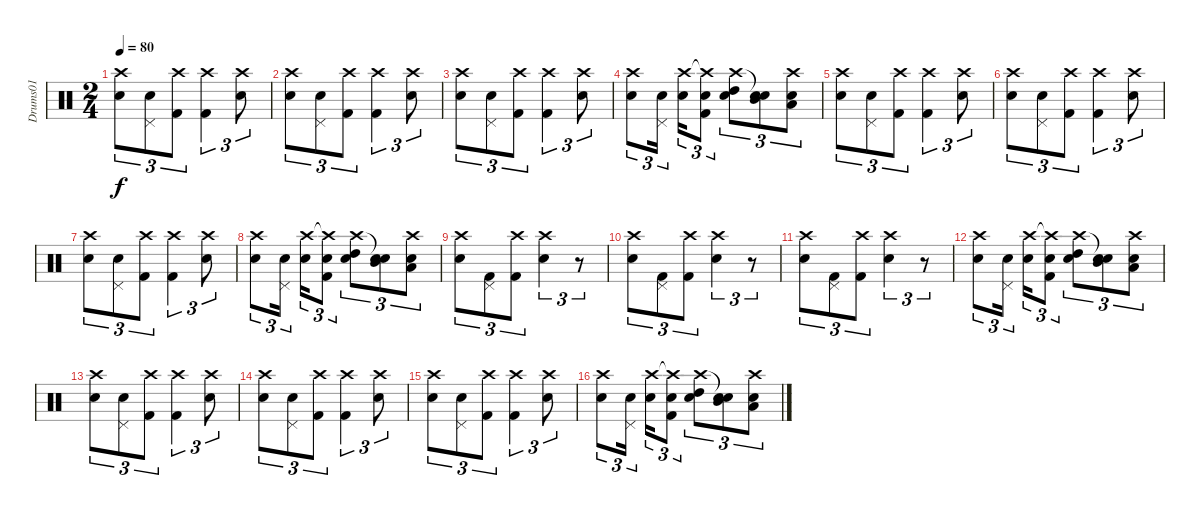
\track ("Drums01" "Drums01") {instrument percussion}
\staff {score}
\articulation defaults
\ts (2 4)
\tempo 80
\clef neutral
\ks c
("Crash high (hit)" "Snare (hit) 2").8{tu (3 2) dy f} ("Pedal Hi-Hat (hit)" "Snare (hit) 2").8{tu (3 2)} ("Crash high (hit)" "Kick (hit) 2").8{tu (3 2)} ("Crash high (hit)" "Kick (hit) 2").4{tu (3 2)} ("Crash high (hit)" "Snare (hit) 2").8{tu (3 2)} |
("Crash high (hit)" "Snare (hit) 2").8{tu (3 2)} ("Pedal Hi-Hat (hit)" "Snare (hit) 2").8{tu (3 2)} ("Crash high (hit)" "Kick (hit) 2").8{tu (3 2)} ("Crash high (hit)" "Kick (hit) 2").4{tu (3 2)} ("Crash high (hit)" "Snare (hit) 2").8{tu (3 2)} |
("Crash high (hit)" "Snare (hit) 2").8{tu (3 2)} ("Pedal Hi-Hat (hit)" "Snare (hit) 2").8{tu (3 2)} ("Crash high (hit)" "Kick (hit) 2").8{tu (3 2)} ("Crash high (hit)" "Kick (hit) 2").4{tu (3 2)} ("Crash high (hit)" "Snare (hit) 2").8{tu (3 2)} |
("Crash high (hit)" "Snare (hit) 2").8{tu (3 2)} ("Pedal Hi-Hat (hit)" "Snare (hit) 2").16{tu (3 2) beam splitsecondary} ("Crash high (hit)" "Snare (hit) 2").16{tu (3 2)} ("Crash high (hit)"{t} "Snare (hit) 2" "Kick (hit) 2").8{tu (3 2)} ("Crash high (hit)" "High Tom (hit)" "Snare (hit) 2").8{tu (3 2)} ("Snare (hit)"{t} "Mid Tom (hit)" "Snare (hit) 2").8{tu (3 2)} ("Crash high (hit)" "Low Tom (hit)" "Snare (hit) 2").8{tu (3 2)} |
("Crash high (hit)" "Snare (hit) 2").8{tu (3 2)} ("Pedal Hi-Hat (hit)" "Snare (hit) 2").8{tu (3 2)} ("Crash high (hit)" "Kick (hit) 2").8{tu (3 2)} ("Crash high (hit)" "Kick (hit) 2").4{tu (3 2)} ("Crash high (hit)" "Snare (hit) 2").8{tu (3 2)} |
("Crash high (hit)" "Snare (hit) 2").8{tu (3 2)} ("Pedal Hi-Hat (hit)" "Snare (hit) 2").8{tu (3 2)} ("Crash high (hit)" "Kick (hit) 2").8{tu (3 2)} ("Crash high (hit)" "Kick (hit) 2").4{tu (3 2)} ("Crash high (hit)" "Snare (hit) 2").8{tu (3 2)} |
("Crash high (hit)" "Snare (hit) 2").8{tu (3 2)} ("Pedal Hi-Hat (hit)" "Snare (hit) 2").8{tu (3 2)} ("Crash high (hit)" "Kick (hit) 2").8{tu (3 2)} ("Crash high (hit)" "Kick (hit) 2").4{tu (3 2)} ("Crash high (hit)" "Snare (hit) 2").8{tu (3 2)} |
("Crash high (hit)" "Snare (hit) 2").8{tu (3 2)} ("Pedal Hi-Hat (hit)" "Snare (hit) 2").16{tu (3 2) beam splitsecondary} ("Crash high (hit)" "Snare (hit) 2").16{tu (3 2)} ("Crash high (hit)"{t} "Snare (hit) 2" "Kick (hit) 2").8{tu (3 2)} ("Crash high (hit)" "High Tom (hit)" "Snare (hit) 2").8{tu (3 2)} ("Snare (hit)"{t} "Mid Tom (hit)" "Snare (hit) 2").8{tu (3 2)} ("Crash high (hit)" "Low Tom (hit)" "Snare (hit) 2").8{tu (3 2)} |
("Crash high (hit)" "Snare (hit) 2").8{tu (3 2)} ("Pedal Hi-Hat (hit)" "Kick (hit) 2").8{tu (3 2)} ("Crash high (hit)" "Kick (hit) 2").8{tu (3 2)} ("Crash high (hit)" "Snare (hit) 2").4{tu (3 2)} r.8{tu (3 2)} |
("Crash high (hit)" "Snare (hit) 2").8{tu (3 2)} ("Pedal Hi-Hat (hit)" "Kick (hit) 2").8{tu (3 2)} ("Crash high (hit)" "Kick (hit) 2").8{tu (3 2)} ("Crash high (hit)" "Snare (hit) 2").4{tu (3 2)} r.8{tu (3 2)} |
("Crash high (hit)" "Snare (hit) 2").8{tu (3 2)} ("Pedal Hi-Hat (hit)" "Kick (hit) 2").8{tu (3 2)} ("Crash high (hit)" "Kick (hit) 2").8{tu (3 2)} ("Crash high (hit)" "Snare (hit) 2").4{tu (3 2)} r.8{tu (3 2)} |
("Crash high (hit)" "Snare (hit) 2").8{tu (3 2)} ("Pedal Hi-Hat (hit)" "Snare (hit) 2").16{tu (3 2) beam splitsecondary} ("Crash high (hit)" "Snare (hit) 2").16{tu (3 2)} ("Crash high (hit)"{t} "Snare (hit) 2" "Kick (hit) 2").8{tu (3 2)} ("Crash high (hit)" "High Tom (hit)" "Snare (hit) 2").8{tu (3 2)} ("Snare (hit)"{t} "Mid Tom (hit)" "Snare (hit) 2").8{tu (3 2)} ("Crash high (hit)" "Low Tom (hit)" "Snare (hit) 2").8{tu (3 2)} |
("Crash high (hit)" "Snare (hit) 2").8{tu (3 2)} ("Pedal Hi-Hat (hit)" "Snare (hit) 2").8{tu (3 2)} ("Crash high (hit)" "Kick (hit) 2").8{tu (3 2)} ("Crash high (hit)" "Kick (hit) 2").4{tu (3 2)} ("Crash high (hit)" "Snare (hit) 2").8{tu (3 2)} |
("Crash high (hit)" "Snare (hit) 2").8{tu (3 2)} ("Pedal Hi-Hat (hit)" "Snare (hit) 2").8{tu (3 2)} ("Crash high (hit)" "Kick (hit) 2").8{tu (3 2)} ("Crash high (hit)" "Kick (hit) 2").4{tu (3 2)} ("Crash high (hit)" "Snare (hit) 2").8{tu (3 2)} |
("Crash high (hit)" "Snare (hit) 2").8{tu (3 2)} ("Pedal Hi-Hat (hit)" "Snare (hit) 2").8{tu (3 2)} ("Crash high (hit)" "Kick (hit) 2").8{tu (3 2)} ("Crash high (hit)" "Kick (hit) 2").4{tu (3 2)} ("Crash high (hit)" "Snare (hit) 2").8{tu (3 2)} |
("Crash high (hit)" "Snare (hit) 2").8{tu (3 2)} ("Pedal Hi-Hat (hit)" "Snare (hit) 2").16{tu (3 2) beam splitsecondary} ("Crash high (hit)" "Snare (hit) 2").16{tu (3 2)} ("Crash high (hit)"{t} "Snare (hit) 2" "Kick (hit) 2").8{tu (3 2)} ("Crash high (hit)" "High Tom (hit)" "Snare (hit) 2").8{tu (3 2)} ("Snare (hit)"{t} "Mid Tom (hit)" "Snare (hit) 2").8{tu (3 2)} ("Crash high (hit)" "Low Tom (hit)" "Snare (hit) 2").8{tu (3 2)}
